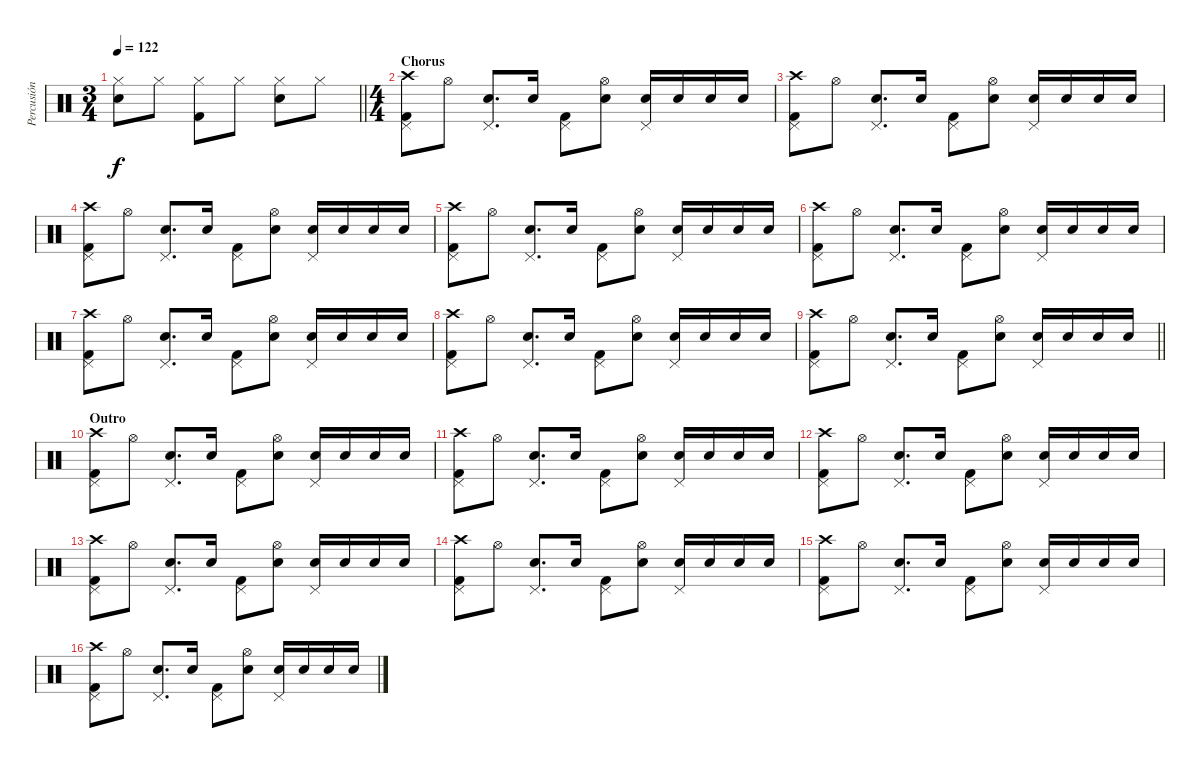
\track ("Percusión" "Percusión") {instrument percussion}
\staff {score}
\articulation defaults
\ts (3 4)
\tempo 122
\clef neutral
\barLineRight lightlight
\ks c
("Hi-Hat (closed)" "Electric Snare (hit)").8{dy f} "Hi-Hat (closed)".8 ("Hi-Hat (closed)" "Kick (hit) 2").8 "Hi-Hat (closed)".8 ("Hi-Hat (closed)" "Electric Snare (hit)").8 "Hi-Hat (closed)".8 |
\ts (4 4)
\section ("" "Chorus")
("Crash high (hit)" "Pedal Hi-Hat (hit)" "Kick (hit) 2").8 "Hi-Hat (open)".8 ("Pedal Hi-Hat (hit)" "Electric Snare (hit)").8{d} "Electric Snare (hit)".16 ("Pedal Hi-Hat (hit)" "Kick (hit) 2").8 ("Hi-Hat (open)" "Electric Snare (hit)").8 ("Pedal Hi-Hat (hit)" "Electric Snare (hit)").16 "Electric Snare (hit)".16 "Electric Snare (hit)".16 "Electric Snare (hit)".16 |
("Crash high (hit)" "Pedal Hi-Hat (hit)" "Kick (hit) 2").8 "Hi-Hat (open)".8 ("Pedal Hi-Hat (hit)" "Electric Snare (hit)").8{d} "Electric Snare (hit)".16 ("Pedal Hi-Hat (hit)" "Kick (hit) 2").8 ("Hi-Hat (open)" "Electric Snare (hit)").8 ("Pedal Hi-Hat (hit)" "Electric Snare (hit)").16 "Electric Snare (hit)".16 "Electric Snare (hit)".16 "Electric Snare (hit)".16 |
("Crash high (hit)" "Pedal Hi-Hat (hit)" "Kick (hit) 2").8 "Hi-Hat (open)".8 ("Pedal Hi-Hat (hit)" "Electric Snare (hit)").8{d} "Electric Snare (hit)".16 ("Pedal Hi-Hat (hit)" "Kick (hit) 2").8 ("Hi-Hat (open)" "Electric Snare (hit)").8 ("Pedal Hi-Hat (hit)" "Electric Snare (hit)").16 "Electric Snare (hit)".16 "Electric Snare (hit)".16 "Electric Snare (hit)".16 |
("Crash high (hit)" "Pedal Hi-Hat (hit)" "Kick (hit) 2").8 "Hi-Hat (open)".8 ("Pedal Hi-Hat (hit)" "Electric Snare (hit)").8{d} "Electric Snare (hit)".16 ("Pedal Hi-Hat (hit)" "Kick (hit) 2").8 ("Hi-Hat (open)" "Electric Snare (hit)").8 ("Pedal Hi-Hat (hit)" "Electric Snare (hit)").16 "Electric Snare (hit)".16 "Electric Snare (hit)".16 "Electric Snare (hit)".16 |
("Crash high (hit)" "Pedal Hi-Hat (hit)" "Kick (hit) 2").8 "Hi-Hat (open)".8 ("Pedal Hi-Hat (hit)" "Electric Snare (hit)").8{d} "Electric Snare (hit)".16 ("Pedal Hi-Hat (hit)" "Kick (hit) 2").8 ("Hi-Hat (open)" "Electric Snare (hit)").8 ("Pedal Hi-Hat (hit)" "Electric Snare (hit)").16 "Electric Snare (hit)".16 "Electric Snare (hit)".16 "Electric Snare (hit)".16 |
("Crash high (hit)" "Pedal Hi-Hat (hit)" "Kick (hit) 2").8 "Hi-Hat (open)".8 ("Pedal Hi-Hat (hit)" "Electric Snare (hit)").8{d} "Electric Snare (hit)".16 ("Pedal Hi-Hat (hit)" "Kick (hit) 2").8 ("Hi-Hat (open)" "Electric Snare (hit)").8 ("Pedal Hi-Hat (hit)" "Electric Snare (hit)").16 "Electric Snare (hit)".16 "Electric Snare (hit)".16 "Electric Snare (hit)".16 |
("Crash high (hit)" "Pedal Hi-Hat (hit)" "Kick (hit) 2").8 "Hi-Hat (open)".8 ("Pedal Hi-Hat (hit)" "Electric Snare (hit)").8{d} "Electric Snare (hit)".16 ("Pedal Hi-Hat (hit)" "Kick (hit) 2").8 ("Hi-Hat (open)" "Electric Snare (hit)").8 ("Pedal Hi-Hat (hit)" "Electric Snare (hit)").16 "Electric Snare (hit)".16 "Electric Snare (hit)".16 "Electric Snare (hit)".16 |
\barLineRight lightlight
("Crash high (hit)" "Pedal Hi-Hat (hit)" "Kick (hit) 2").8 "Hi-Hat (open)".8 ("Pedal Hi-Hat (hit)" "Electric Snare (hit)").8{d} "Electric Snare (hit)".16 ("Pedal Hi-Hat (hit)" "Kick (hit) 2").8 ("Hi-Hat (open)" "Electric Snare (hit)").8 ("Pedal Hi-Hat (hit)" "Electric Snare (hit)").16 "Electric Snare (hit)".16 "Electric Snare (hit)".16 "Electric Snare (hit)".16 |
\section ("" "Outro")
("Crash high (hit)" "Pedal Hi-Hat (hit)" "Kick (hit) 2").8 "Hi-Hat (open)".8 ("Pedal Hi-Hat (hit)" "Electric Snare (hit)").8{d} "Electric Snare (hit)".16 ("Pedal Hi-Hat (hit)" "Kick (hit) 2").8 ("Hi-Hat (open)" "Electric Snare (hit)").8 ("Pedal Hi-Hat (hit)" "Electric Snare (hit)").16 "Electric Snare (hit)".16 "Electric Snare (hit)".16 "Electric Snare (hit)".16 |
("Crash high (hit)" "Pedal Hi-Hat (hit)" "Kick (hit) 2").8 "Hi-Hat (open)".8 ("Pedal Hi-Hat (hit)" "Electric Snare (hit)").8{d} "Electric Snare (hit)".16 ("Pedal Hi-Hat (hit)" "Kick (hit) 2").8 ("Hi-Hat (open)" "Electric Snare (hit)").8 ("Pedal Hi-Hat (hit)" "Electric Snare (hit)").16 "Electric Snare (hit)".16 "Electric Snare (hit)".16 "Electric Snare (hit)".16 |
("Crash high (hit)" "Pedal Hi-Hat (hit)" "Kick (hit) 2").8 "Hi-Hat (open)".8 ("Pedal Hi-Hat (hit)" "Electric Snare (hit)").8{d} "Electric Snare (hit)".16 ("Pedal Hi-Hat (hit)" "Kick (hit) 2").8 ("Hi-Hat (open)" "Electric Snare (hit)").8 ("Pedal Hi-Hat (hit)" "Electric Snare (hit)").16 "Electric Snare (hit)".16 "Electric Snare (hit)".16 "Electric Snare (hit)".16 |
("Crash high (hit)" "Pedal Hi-Hat (hit)" "Kick (hit) 2").8 "Hi-Hat (open)".8 ("Pedal Hi-Hat (hit)" "Electric Snare (hit)").8{d} "Electric Snare (hit)".16 ("Pedal Hi-Hat (hit)" "Kick (hit) 2").8 ("Hi-Hat (open)" "Electric Snare (hit)").8 ("Pedal Hi-Hat (hit)" "Electric Snare (hit)").16 "Electric Snare (hit)".16 "Electric Snare (hit)".16 "Electric Snare (hit)".16 |
("Crash high (hit)" "Pedal Hi-Hat (hit)" "Kick (hit) 2").8 "Hi-Hat (open)".8 ("Pedal Hi-Hat (hit)" "Electric Snare (hit)").8{d} "Electric Snare (hit)".16 ("Pedal Hi-Hat (hit)" "Kick (hit) 2").8 ("Hi-Hat (open)" "Electric Snare (hit)").8 ("Pedal Hi-Hat (hit)" "Electric Snare (hit)").16 "Electric Snare (hit)".16 "Electric Snare (hit)".16 "Electric Snare (hit)".16 |
("Crash high (hit)" "Pedal Hi-Hat (hit)" "Kick (hit) 2").8 "Hi-Hat (open)".8 ("Pedal Hi-Hat (hit)" "Electric Snare (hit)").8{d} "Electric Snare (hit)".16 ("Pedal Hi-Hat (hit)" "Kick (hit) 2").8 ("Hi-Hat (open)" "Electric Snare (hit)").8 ("Pedal Hi-Hat (hit)" "Electric Snare (hit)").16 "Electric Snare (hit)".16 "Electric Snare (hit)".16 "Electric Snare (hit)".16 |
("Crash high (hit)" "Pedal Hi-Hat (hit)" "Kick (hit) 2").8 "Hi-Hat (open)".8 ("Pedal Hi-Hat (hit)" "Electric Snare (hit)").8{d} "Electric Snare (hit)".16 ("Pedal Hi-Hat (hit)" "Kick (hit) 2").8 ("Hi-Hat (open)" "Electric Snare (hit)").8 ("Pedal Hi-Hat (hit)" "Electric Snare (hit)").16 "Electric Snare (hit)".16 "Electric Snare (hit)".16 "Electric Snare (hit)".16
